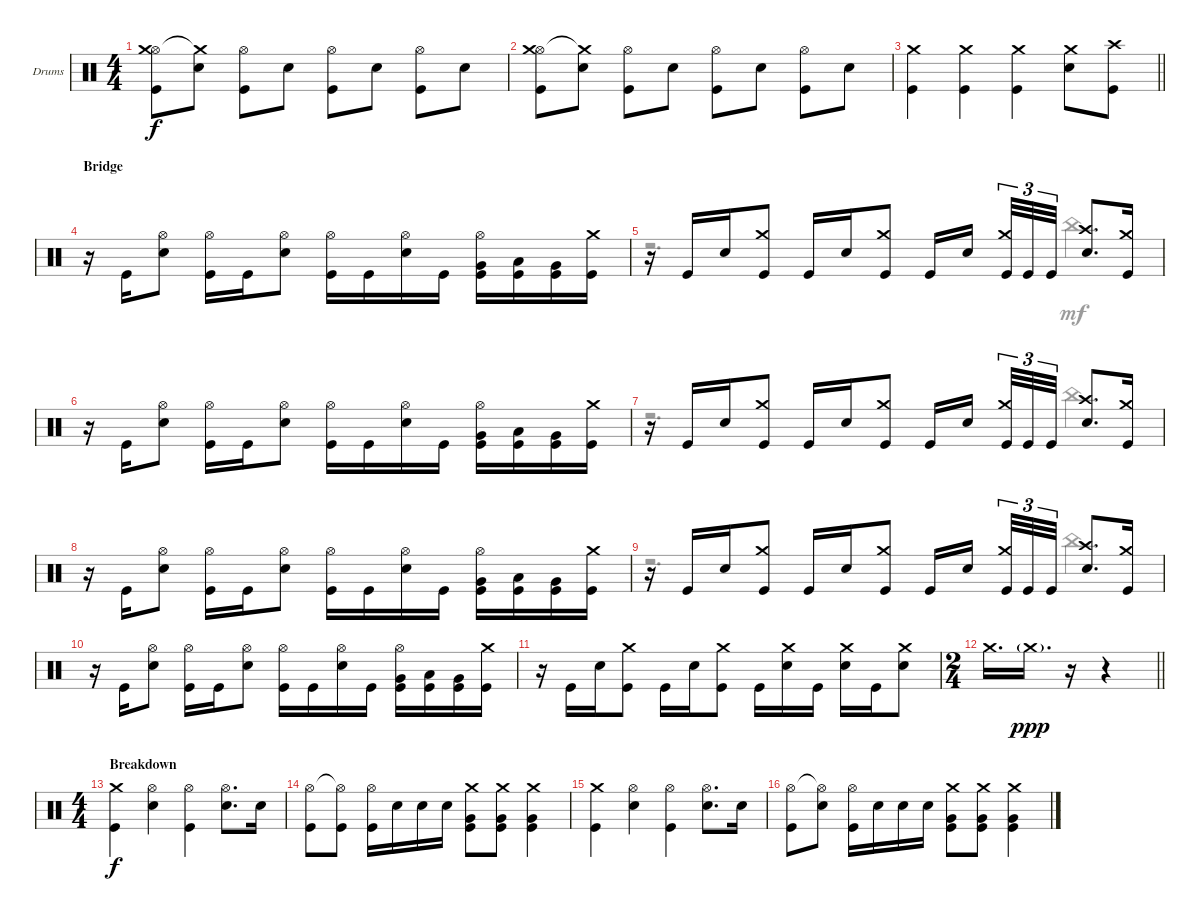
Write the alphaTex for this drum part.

\bracketExtendMode groupsimilarinstruments
\firstSystemTrackNameOrientation horizontal
\otherSystemsTrackNameOrientation horizontal
\track ("Drumkit" "Drums") {instrument percussion}
\staff {score}
\articulation defaults
\voice
\ts (4 4)
\tempo (188 hide)
\clef neutral
\ks c
("Hi-Hat (open)" "Crash medium (hit)" "Kick (hit)").8{dy f} ("Crash medium (hit)"{t} "Snare (hit) 2").8 ("Hi-Hat (open)" "Kick (hit)").8 "Snare (hit) 2".8 ("Hi-Hat (open)" "Kick (hit)").8 "Snare (hit) 2".8 ("Hi-Hat (open)" "Kick (hit)").8 "Snare (hit) 2".8 |
("Hi-Hat (open)" "Crash medium (hit)" "Kick (hit)").8 ("Crash medium (hit)"{t} "Snare (hit) 2").8 ("Hi-Hat (open)" "Kick (hit)").8 "Snare (hit) 2".8 ("Hi-Hat (open)" "Kick (hit)").8 "Snare (hit) 2".8 ("Hi-Hat (open)" "Kick (hit)").8 "Snare (hit) 2".8 |
\barLineRight lightlight
("Crash medium (hit)" "Kick (hit)").4 ("Crash medium (hit)" "Kick (hit)").4 ("Crash medium (hit)" "Kick (hit)").4 ("Crash medium (hit)" "Snare (hit) 2").8 ("Crash high (hit)" "Kick (hit)").8 |
\section ("" "Bridge")
\tempo (94 hide)
r.16 "Kick (hit)".16 ("Hi-Hat (open)" "Snare (hit) 2").8 ("Hi-Hat (open)" "Kick (hit)").16 "Kick (hit)".16 ("Hi-Hat (open)" "Snare (hit) 2").8 ("Hi-Hat (open)" "Kick (hit)").16 "Kick (hit)".16 ("Hi-Hat (open)" "Snare (hit) 2").16 "Kick (hit)".16 ("Hi-Hat (open)" "Very Low Tom (hit)" "Kick (hit)").16 ("Low Tom (hit)" "Kick (hit)").16 ("Very Low Tom (hit)" "Kick (hit)").16 ("Crash medium (hit)" "Kick (hit)").16 |
r.16 "Kick (hit)".16 "Snare (hit) 2".16 ("Crash medium (hit)" "Kick (hit)").8 "Kick (hit)".16 "Snare (hit) 2".16 ("Crash medium (hit)" "Kick (hit)").8 "Kick (hit)".16 "Snare (hit) 2".16 ("Crash medium (hit)" "Kick (hit)").32{tu (3 2)} "Kick (hit)".32{tu (3 2)} "Kick (hit)".32{tu (3 2)} ("Crash high (hit)" "Snare (hit) 2").8{d} ("Crash medium (hit)" "Kick (hit)").16 |
\tempo (94 hide)
r.16 "Kick (hit)".16 ("Hi-Hat (open)" "Snare (hit) 2").8 ("Hi-Hat (open)" "Kick (hit)").16 "Kick (hit)".16 ("Hi-Hat (open)" "Snare (hit) 2").8 ("Hi-Hat (open)" "Kick (hit)").16 "Kick (hit)".16 ("Hi-Hat (open)" "Snare (hit) 2").16 "Kick (hit)".16 ("Hi-Hat (open)" "Very Low Tom (hit)" "Kick (hit)").16 ("Low Tom (hit)" "Kick (hit)").16 ("Very Low Tom (hit)" "Kick (hit)").16 ("Crash medium (hit)" "Kick (hit)").16 |
r.16 "Kick (hit)".16 "Snare (hit) 2".16 ("Crash medium (hit)" "Kick (hit)").8 "Kick (hit)".16 "Snare (hit) 2".16 ("Crash medium (hit)" "Kick (hit)").8 "Kick (hit)".16 "Snare (hit) 2".16 ("Crash medium (hit)" "Kick (hit)").32{tu (3 2)} "Kick (hit)".32{tu (3 2)} "Kick (hit)".32{tu (3 2)} ("Crash high (hit)" "Snare (hit) 2").8{d} ("Crash medium (hit)" "Kick (hit)").16 |
r.16 "Kick (hit)".16 ("Hi-Hat (open)" "Snare (hit) 2").8 ("Hi-Hat (open)" "Kick (hit)").16 "Kick (hit)".16 ("Hi-Hat (open)" "Snare (hit) 2").8 ("Hi-Hat (open)" "Kick (hit)").16 "Kick (hit)".16 ("Hi-Hat (open)" "Snare (hit) 2").16 "Kick (hit)".16 ("Hi-Hat (open)" "Very Low Tom (hit)" "Kick (hit)").16 ("Low Tom (hit)" "Kick (hit)").16 ("Very Low Tom (hit)" "Kick (hit)").16 ("Crash medium (hit)" "Kick (hit)").16 |
r.16 "Kick (hit)".16 "Snare (hit) 2".16 ("Crash medium (hit)" "Kick (hit)").8 "Kick (hit)".16 "Snare (hit) 2".16 ("Crash medium (hit)" "Kick (hit)").8 "Kick (hit)".16 "Snare (hit) 2".16 ("Crash medium (hit)" "Kick (hit)").32{tu (3 2)} "Kick (hit)".32{tu (3 2)} "Kick (hit)".32{tu (3 2)} ("Crash high (hit)" "Snare (hit) 2").8{d} ("Crash medium (hit)" "Kick (hit)").16 |
r.16 "Kick (hit)".16 ("Hi-Hat (open)" "Snare (hit) 2").8 ("Hi-Hat (open)" "Kick (hit)").16 "Kick (hit)".16 ("Hi-Hat (open)" "Snare (hit) 2").8 ("Hi-Hat (open)" "Kick (hit)").16 "Kick (hit)".16 ("Hi-Hat (open)" "Snare (hit) 2").16 "Kick (hit)".16 ("Hi-Hat (open)" "Very Low Tom (hit)" "Kick (hit)").16 ("Low Tom (hit)" "Kick (hit)").16 ("Very Low Tom (hit)" "Kick (hit)").16 ("Crash medium (hit)" "Kick (hit)").16 |
r.16 "Kick (hit)".16 "Snare (hit) 2".16 ("Crash medium (hit)" "Kick (hit)").8 "Kick (hit)".16 "Snare (hit) 2".16 ("Crash medium (hit)" "Kick (hit)").8 "Kick (hit)".16 ("Crash medium (hit)" "Snare (hit) 2").16 "Kick (hit)".16 ("Crash medium (hit)" "Snare (hit) 2").16 "Kick (hit)".16 ("Crash medium (hit)" "Snare (hit) 2").8 |
\ts (2 4)
\beaming (8 2 2)
\barLineRight lightlight "Crash medium (hit)".16{d} "Crash medium (hit)"{g}.16{d dy ppp}
r.16 r.4 |
\ts (4 4)
\beaming (8 2 2 2 2)
\section ("" "Breakdown")
("Crash medium (hit)" "Kick (hit)").4{dy f} ("Hi-Hat (open)" "Snare (hit) 2").4 ("Hi-Hat (open)" "Kick (hit)").4 ("Hi-Hat (open)" "Snare (hit) 2").8{d} "Snare (hit) 2".16 |
("Hi-Hat (open)" "Kick (hit)").8 ("Hi-Hat (open)"{t} "Kick (hit)").8 ("Hi-Hat (open)" "Kick (hit)").16 "Snare (hit) 2".16 "Snare (hit) 2".16 "Snare (hit) 2".16 ("Crash medium (hit)" "Very Low Tom (hit)" "Kick (hit)").8 ("Crash medium (hit)" "Very Low Tom (hit)" "Kick (hit)").8 ("Crash medium (hit)" "Very Low Tom (hit)" "Kick (hit)").4 |
("Crash medium (hit)" "Kick (hit)").4 ("Hi-Hat (open)" "Snare (hit) 2").4 ("Hi-Hat (open)" "Kick (hit)").4 ("Hi-Hat (open)" "Snare (hit) 2").8{d} "Snare (hit) 2".16 |
("Hi-Hat (open)" "Kick (hit)").8 ("Hi-Hat (open)"{t} "Snare (hit) 2").8 ("Hi-Hat (open)" "Kick (hit)").16 "Snare (hit) 2".16 "Snare (hit) 2".16 "Snare (hit) 2".16 ("Crash medium (hit)" "Very Low Tom (hit)" "Kick (hit)").8 ("Crash medium (hit)" "Very Low Tom (hit)" "Kick (hit)").8 ("Crash medium (hit)" "Very Low Tom (hit)" "Kick (hit)").4
\voice
\clef neutral
\ottava regular
\simile none
\ks c
|
|
\barLineRight lightlight
|
|
r.2{d} "China (hit)".4{dy mf} |
|
r.2{d} "China (hit)".4 |
|
r.2{d} "China (hit)".4 |
|
|
\barLineRight lightlight
|
|
|
|
